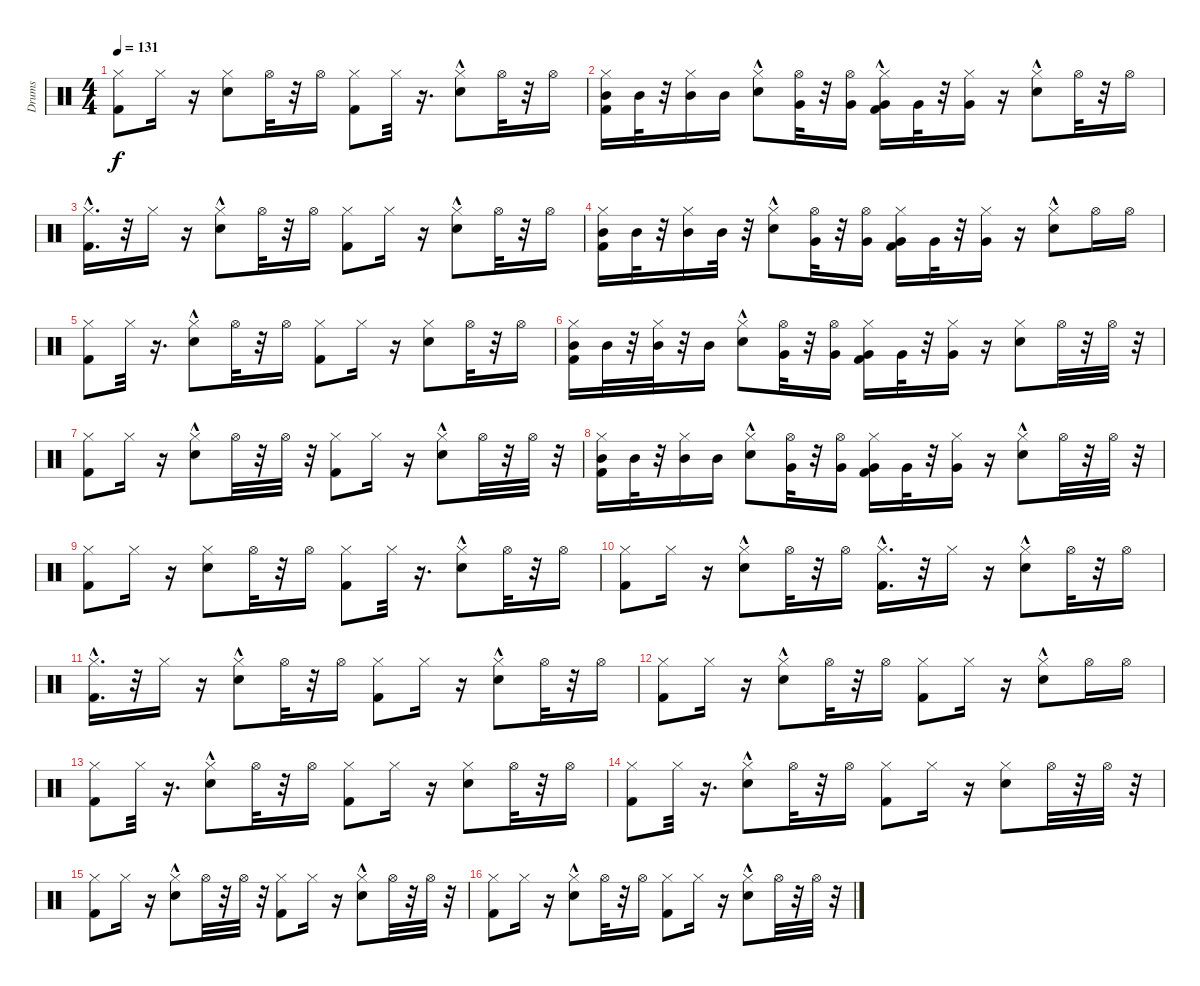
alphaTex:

\track ("Drums" "Drums") {instrument percussion}
\staff {score}
\articulation defaults
\ts (4 4)
\tempo 131
\clef neutral
\ks c
("Kick (hit) 2" "Hi-Hat (closed)").8{dy f} "Hi-Hat (closed)".16 r.16 ("Snare (hit) 2" "Hi-Hat (closed)").8 "Hi-Hat (open)".32 r.32 "Hi-Hat (open)".16 ("Kick (hit) 2" "Hi-Hat (closed)").8 "Hi-Hat (closed)".32 r.16{d} ("Snare (hit) 2" "Hi-Hat (closed)"{hac}).8 "Hi-Hat (open)".32 r.32 "Hi-Hat (open)".16 |
("Kick (hit) 2" "Hi-Hat (closed)" "Mid Tom (hit)").16 "Mid Tom (hit)".32 r.32 ("Hi-Hat (closed)" "Mid Tom (hit)").16 "Mid Tom (hit)".16 ("Snare (hit) 2" "Hi-Hat (closed)"{hac}).8 ("Hi-Hat (open)" "Very Low Tom (hit)").32 r.32 ("Hi-Hat (open)" "Very Low Tom (hit)").16 ("Kick (hit) 2"{hac} "Hi-Hat (closed)" "Very Low Tom (hit)").16 "Very Low Tom (hit)".32 r.32 ("Hi-Hat (closed)" "Very Low Tom (hit)").16 r.16 ("Snare (hit) 2" "Hi-Hat (closed)"{hac}).8 "Hi-Hat (open)".32 r.32 "Hi-Hat (open)".16 |
("Kick (hit) 2"{hac} "Hi-Hat (closed)").16{d} r.32 "Hi-Hat (closed)".16 r.16 ("Snare (hit) 2" "Hi-Hat (closed)"{hac}).8 "Hi-Hat (open)".32 r.32 "Hi-Hat (open)".16 ("Kick (hit) 2" "Hi-Hat (closed)").8 "Hi-Hat (closed)".16 r.16 ("Snare (hit) 2" "Hi-Hat (closed)"{hac}).8 "Hi-Hat (open)".32 r.32 "Hi-Hat (open)".16 |
("Kick (hit) 2" "Hi-Hat (closed)" "Mid Tom (hit)").16 "Mid Tom (hit)".32 r.32 ("Hi-Hat (closed)" "Mid Tom (hit)").16 "Mid Tom (hit)".32 r.32 ("Snare (hit) 2" "Hi-Hat (closed)"{hac}).8 ("Hi-Hat (open)" "Very Low Tom (hit)").32 r.32 ("Hi-Hat (open)" "Very Low Tom (hit)").16 ("Kick (hit) 2" "Hi-Hat (closed)" "Very Low Tom (hit)").16 "Very Low Tom (hit)".32 r.32 ("Hi-Hat (closed)" "Very Low Tom (hit)").16 r.16 ("Snare (hit) 2" "Hi-Hat (closed)"{hac}).8 "Hi-Hat (open)".16 "Hi-Hat (open)".16 |
("Kick (hit) 2" "Hi-Hat (closed)").8 "Hi-Hat (closed)".32 r.16{d} ("Snare (hit) 2" "Hi-Hat (closed)"{hac}).8 "Hi-Hat (open)".32 r.32 "Hi-Hat (open)".16 ("Kick (hit) 2" "Hi-Hat (closed)").8 "Hi-Hat (closed)".16 r.16 ("Snare (hit) 2" "Hi-Hat (closed)").8 "Hi-Hat (open)".32 r.32 "Hi-Hat (open)".16 |
("Kick (hit) 2" "Hi-Hat (closed)" "Mid Tom (hit)").16 "Mid Tom (hit)".32 r.32 ("Hi-Hat (closed)" "Mid Tom (hit)").32 r.32 "Mid Tom (hit)".16 ("Snare (hit) 2" "Hi-Hat (closed)"{hac}).8 ("Hi-Hat (open)" "Very Low Tom (hit)").32 r.32 ("Hi-Hat (open)" "Very Low Tom (hit)").16 ("Kick (hit) 2" "Hi-Hat (closed)" "Very Low Tom (hit)").16 "Very Low Tom (hit)".32 r.32 ("Hi-Hat (closed)" "Very Low Tom (hit)").16 r.16 ("Snare (hit) 2" "Hi-Hat (closed)").8 "Hi-Hat (open)".32 r.32 "Hi-Hat (open)".32 r.32 |
("Kick (hit) 2" "Hi-Hat (closed)").8 "Hi-Hat (closed)".16 r.16 ("Snare (hit) 2" "Hi-Hat (closed)"{hac}).8 "Hi-Hat (open)".32 r.32 "Hi-Hat (open)".32 r.32 ("Kick (hit) 2" "Hi-Hat (closed)").8 "Hi-Hat (closed)".16 r.16 ("Snare (hit) 2" "Hi-Hat (closed)"{hac}).8 "Hi-Hat (open)".32 r.32 "Hi-Hat (open)".32 r.32 |
("Kick (hit) 2" "Hi-Hat (closed)" "Mid Tom (hit)").16 "Mid Tom (hit)".32 r.32 ("Hi-Hat (closed)" "Mid Tom (hit)").16 "Mid Tom (hit)".16 ("Snare (hit) 2" "Hi-Hat (closed)"{hac}).8 ("Hi-Hat (open)" "Very Low Tom (hit)").32 r.32 ("Hi-Hat (open)" "Very Low Tom (hit)").16 ("Kick (hit) 2" "Hi-Hat (closed)" "Very Low Tom (hit)").16 "Very Low Tom (hit)".32 r.32 ("Hi-Hat (closed)" "Very Low Tom (hit)").16 r.16 ("Snare (hit) 2" "Hi-Hat (closed)"{hac}).8 "Hi-Hat (open)".32 r.32 "Hi-Hat (open)".32 r.32 |
("Kick (hit) 2" "Hi-Hat (closed)").8 "Hi-Hat (closed)".16 r.16 ("Snare (hit) 2" "Hi-Hat (closed)").8 "Hi-Hat (open)".32 r.32 "Hi-Hat (open)".16 ("Kick (hit) 2" "Hi-Hat (closed)").8 "Hi-Hat (closed)".32 r.16{d} ("Snare (hit) 2" "Hi-Hat (closed)"{hac}).8 "Hi-Hat (open)".32 r.32 "Hi-Hat (open)".16 |
("Kick (hit) 2" "Hi-Hat (closed)").8 "Hi-Hat (closed)".16 r.16 ("Snare (hit) 2" "Hi-Hat (closed)"{hac}).8 "Hi-Hat (open)".32 r.32 "Hi-Hat (open)".16 ("Kick (hit) 2"{hac} "Hi-Hat (closed)").16{d} r.32 "Hi-Hat (closed)".16 r.16 ("Snare (hit) 2" "Hi-Hat (closed)"{hac}).8 "Hi-Hat (open)".32 r.32 "Hi-Hat (open)".16 |
("Kick (hit) 2"{hac} "Hi-Hat (closed)").16{d} r.32 "Hi-Hat (closed)".16 r.16 ("Snare (hit) 2" "Hi-Hat (closed)"{hac}).8 "Hi-Hat (open)".32 r.32 "Hi-Hat (open)".16 ("Kick (hit) 2" "Hi-Hat (closed)").8 "Hi-Hat (closed)".16 r.16 ("Snare (hit) 2" "Hi-Hat (closed)"{hac}).8 "Hi-Hat (open)".32 r.32 "Hi-Hat (open)".16 |
("Kick (hit) 2" "Hi-Hat (closed)").8 "Hi-Hat (closed)".16 r.16 ("Snare (hit) 2" "Hi-Hat (closed)"{hac}).8 "Hi-Hat (open)".32 r.32 "Hi-Hat (open)".16 ("Kick (hit) 2" "Hi-Hat (closed)").8 "Hi-Hat (closed)".16 r.16 ("Snare (hit) 2" "Hi-Hat (closed)"{hac}).8 "Hi-Hat (open)".16 "Hi-Hat (open)".16 |
("Kick (hit) 2" "Hi-Hat (closed)").8 "Hi-Hat (closed)".32 r.16{d} ("Snare (hit) 2" "Hi-Hat (closed)"{hac}).8 "Hi-Hat (open)".32 r.32 "Hi-Hat (open)".16 ("Kick (hit) 2" "Hi-Hat (closed)").8 "Hi-Hat (closed)".16 r.16 ("Snare (hit) 2" "Hi-Hat (closed)").8 "Hi-Hat (open)".32 r.32 "Hi-Hat (open)".16 |
("Kick (hit) 2" "Hi-Hat (closed)").8 "Hi-Hat (closed)".32 r.16{d} ("Snare (hit) 2" "Hi-Hat (closed)"{hac}).8 "Hi-Hat (open)".32 r.32 "Hi-Hat (open)".16 ("Kick (hit) 2" "Hi-Hat (closed)").8 "Hi-Hat (closed)".16 r.16 ("Snare (hit) 2" "Hi-Hat (closed)").8 "Hi-Hat (open)".32 r.32 "Hi-Hat (open)".32 r.32 |
("Kick (hit) 2" "Hi-Hat (closed)").8 "Hi-Hat (closed)".16 r.16 ("Snare (hit) 2" "Hi-Hat (closed)"{hac}).8 "Hi-Hat (open)".32 r.32 "Hi-Hat (open)".32 r.32 ("Kick (hit) 2" "Hi-Hat (closed)").8 "Hi-Hat (closed)".16 r.16 ("Snare (hit) 2" "Hi-Hat (closed)"{hac}).8 "Hi-Hat (open)".32 r.32 "Hi-Hat (open)".32 r.32 |
("Kick (hit) 2" "Hi-Hat (closed)").8 "Hi-Hat (closed)".16 r.16 ("Snare (hit) 2" "Hi-Hat (closed)"{hac}).8 "Hi-Hat (open)".32 r.32 "Hi-Hat (open)".16 ("Kick (hit) 2" "Hi-Hat (closed)").8 "Hi-Hat (closed)".16 r.16 ("Snare (hit) 2" "Hi-Hat (closed)"{hac}).8 "Hi-Hat (open)".32 r.32 "Hi-Hat (open)".32 r.32
